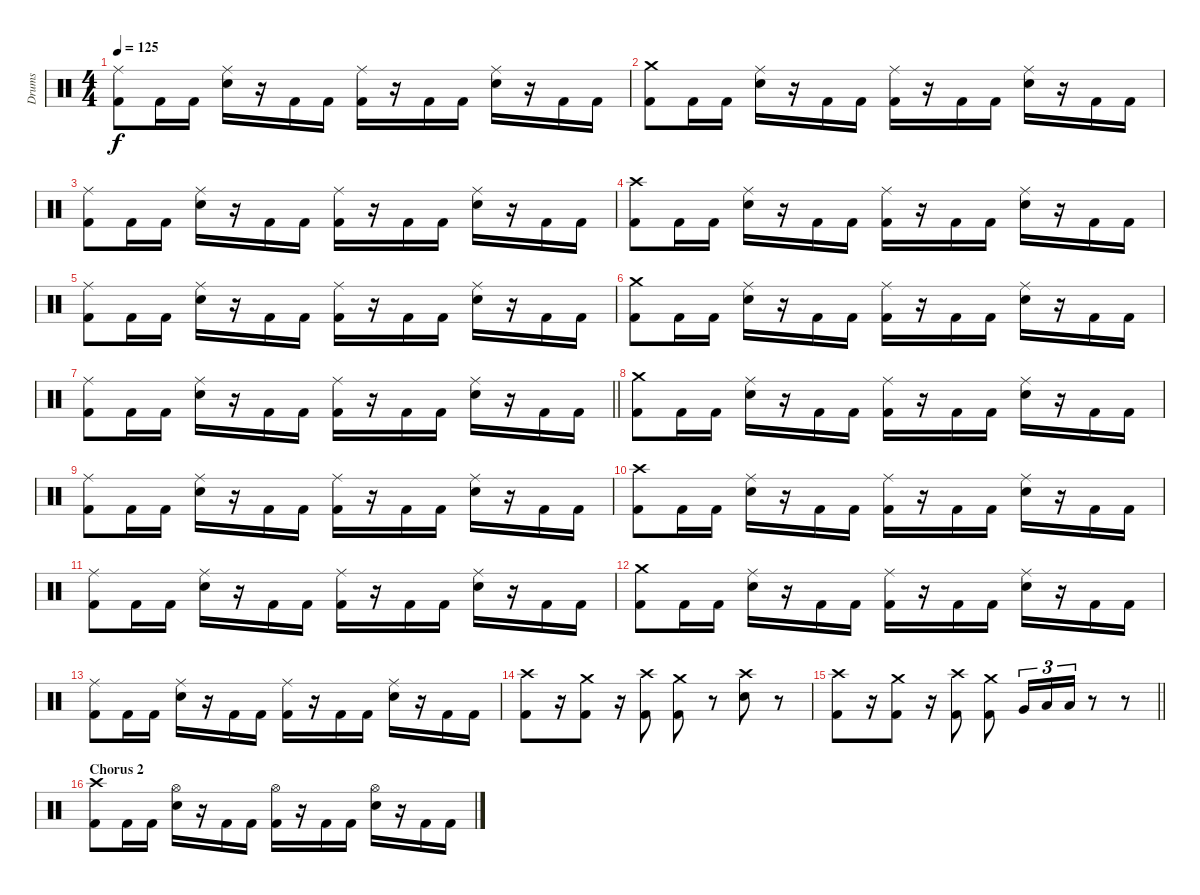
\track ("Drums" "Drums") {instrument percussion}
\staff {score}
\articulation defaults
\ts (4 4)
\tempo 125
\clef neutral
\ks c
("Ride (middle)" "Kick (hit) 2").8{dy f} "Kick (hit) 2".16 "Kick (hit) 2".16 ("Ride (middle)" "Snare (hit) 2").16 r.16 "Kick (hit) 2".16 "Kick (hit) 2".16 ("Ride (middle)" "Kick (hit) 2").16 r.16 "Kick (hit) 2".16 "Kick (hit) 2".16 ("Ride (middle)" "Snare (hit) 2").16 r.16 "Kick (hit) 2".16 "Kick (hit) 2".16 |
("Crash medium (hit)" "Kick (hit) 2").8 "Kick (hit) 2".16 "Kick (hit) 2".16 ("Ride (middle)" "Snare (hit) 2").16 r.16 "Kick (hit) 2".16 "Kick (hit) 2".16 ("Ride (middle)" "Kick (hit) 2").16 r.16 "Kick (hit) 2".16 "Kick (hit) 2".16 ("Ride (middle)" "Snare (hit) 2").16 r.16 "Kick (hit) 2".16 "Kick (hit) 2".16 |
("Ride (middle)" "Kick (hit) 2").8 "Kick (hit) 2".16 "Kick (hit) 2".16 ("Ride (middle)" "Snare (hit) 2").16 r.16 "Kick (hit) 2".16 "Kick (hit) 2".16 ("Ride (middle)" "Kick (hit) 2").16 r.16 "Kick (hit) 2".16 "Kick (hit) 2".16 ("Ride (middle)" "Snare (hit) 2").16 r.16 "Kick (hit) 2".16 "Kick (hit) 2".16 |
("Crash high (hit)" "Kick (hit) 2").8 "Kick (hit) 2".16 "Kick (hit) 2".16 ("Ride (middle)" "Snare (hit) 2").16 r.16 "Kick (hit) 2".16 "Kick (hit) 2".16 ("Ride (middle)" "Kick (hit) 2").16 r.16 "Kick (hit) 2".16 "Kick (hit) 2".16 ("Ride (middle)" "Snare (hit) 2").16 r.16 "Kick (hit) 2".16 "Kick (hit) 2".16 |
("Ride (middle)" "Kick (hit) 2").8 "Kick (hit) 2".16 "Kick (hit) 2".16 ("Ride (middle)" "Snare (hit) 2").16 r.16 "Kick (hit) 2".16 "Kick (hit) 2".16 ("Ride (middle)" "Kick (hit) 2").16 r.16 "Kick (hit) 2".16 "Kick (hit) 2".16 ("Ride (middle)" "Snare (hit) 2").16 r.16 "Kick (hit) 2".16 "Kick (hit) 2".16 |
("Crash medium (hit)" "Kick (hit) 2").8 "Kick (hit) 2".16 "Kick (hit) 2".16 ("Ride (middle)" "Snare (hit) 2").16 r.16 "Kick (hit) 2".16 "Kick (hit) 2".16 ("Ride (middle)" "Kick (hit) 2").16 r.16 "Kick (hit) 2".16 "Kick (hit) 2".16 ("Ride (middle)" "Snare (hit) 2").16 r.16 "Kick (hit) 2".16 "Kick (hit) 2".16 |
\barLineRight lightlight
("Ride (middle)" "Kick (hit) 2").8 "Kick (hit) 2".16 "Kick (hit) 2".16 ("Ride (middle)" "Snare (hit) 2").16 r.16 "Kick (hit) 2".16 "Kick (hit) 2".16 ("Ride (middle)" "Kick (hit) 2").16 r.16 "Kick (hit) 2".16 "Kick (hit) 2".16 ("Ride (middle)" "Snare (hit) 2").16 r.16 "Kick (hit) 2".16 "Kick (hit) 2".16 |
("Crash medium (hit)" "Kick (hit) 2").8 "Kick (hit) 2".16 "Kick (hit) 2".16 ("Ride (middle)" "Snare (hit) 2").16 r.16 "Kick (hit) 2".16 "Kick (hit) 2".16 ("Ride (middle)" "Kick (hit) 2").16 r.16 "Kick (hit) 2".16 "Kick (hit) 2".16 ("Ride (middle)" "Snare (hit) 2").16 r.16 "Kick (hit) 2".16 "Kick (hit) 2".16 |
("Ride (middle)" "Kick (hit) 2").8 "Kick (hit) 2".16 "Kick (hit) 2".16 ("Ride (middle)" "Snare (hit) 2").16 r.16 "Kick (hit) 2".16 "Kick (hit) 2".16 ("Ride (middle)" "Kick (hit) 2").16 r.16 "Kick (hit) 2".16 "Kick (hit) 2".16 ("Ride (middle)" "Snare (hit) 2").16 r.16 "Kick (hit) 2".16 "Kick (hit) 2".16 |
("Crash high (hit)" "Kick (hit) 2").8 "Kick (hit) 2".16 "Kick (hit) 2".16 ("Ride (middle)" "Snare (hit) 2").16 r.16 "Kick (hit) 2".16 "Kick (hit) 2".16 ("Ride (middle)" "Kick (hit) 2").16 r.16 "Kick (hit) 2".16 "Kick (hit) 2".16 ("Ride (middle)" "Snare (hit) 2").16 r.16 "Kick (hit) 2".16 "Kick (hit) 2".16 |
("Ride (middle)" "Kick (hit) 2").8 "Kick (hit) 2".16 "Kick (hit) 2".16 ("Ride (middle)" "Snare (hit) 2").16 r.16 "Kick (hit) 2".16 "Kick (hit) 2".16 ("Ride (middle)" "Kick (hit) 2").16 r.16 "Kick (hit) 2".16 "Kick (hit) 2".16 ("Ride (middle)" "Snare (hit) 2").16 r.16 "Kick (hit) 2".16 "Kick (hit) 2".16 |
("Crash medium (hit)" "Kick (hit) 2").8 "Kick (hit) 2".16 "Kick (hit) 2".16 ("Ride (middle)" "Snare (hit) 2").16 r.16 "Kick (hit) 2".16 "Kick (hit) 2".16 ("Ride (middle)" "Kick (hit) 2").16 r.16 "Kick (hit) 2".16 "Kick (hit) 2".16 ("Ride (middle)" "Snare (hit) 2").16 r.16 "Kick (hit) 2".16 "Kick (hit) 2".16 |
("Ride (middle)" "Kick (hit) 2").8 "Kick (hit) 2".16 "Kick (hit) 2".16 ("Ride (middle)" "Snare (hit) 2").16 r.16 "Kick (hit) 2".16 "Kick (hit) 2".16 ("Ride (middle)" "Kick (hit) 2").16 r.16 "Kick (hit) 2".16 "Kick (hit) 2".16 ("Ride (middle)" "Snare (hit) 2").16 r.16 "Kick (hit) 2".16 "Kick (hit) 2".16 |
("Crash high (hit)" "Kick (hit) 2").8 r.16 ("Crash medium (hit)" "Kick (hit) 2").8 r.16 ("Crash high (hit)" "Kick (hit) 2").8 ("Crash medium (hit)" "Kick (hit) 2").8 r.8 ("Crash high (hit)" "Snare (hit) 2").8 r.8 |
\barLineRight lightlight
("Crash high (hit)" "Kick (hit) 2").8 r.16 ("Crash medium (hit)" "Kick (hit) 2").8 r.16 ("Crash high (hit)" "Kick (hit) 2").8 ("Crash medium (hit)" "Kick (hit) 2").8 "Very Low Tom (hit)".16{tu (3 2)} "Low Floor Tom (hit)".16{tu (3 2)} "Low Floor Tom (hit)".16{tu (3 2)} r.8 r.8 |
\section ("" "Chorus 2")
("Crash high (hit)" "Kick (hit) 2").8 "Kick (hit) 2".16 "Kick (hit) 2".16 ("Hi-Hat (open)" "Snare (hit) 2").16 r.16 "Kick (hit) 2".16 "Kick (hit) 2".16 ("Hi-Hat (open)" "Kick (hit) 2").16 r.16 "Kick (hit) 2".16 "Kick (hit) 2".16 ("Hi-Hat (open)" "Snare (hit) 2").16 r.16 "Kick (hit) 2".16 "Kick (hit) 2".16
